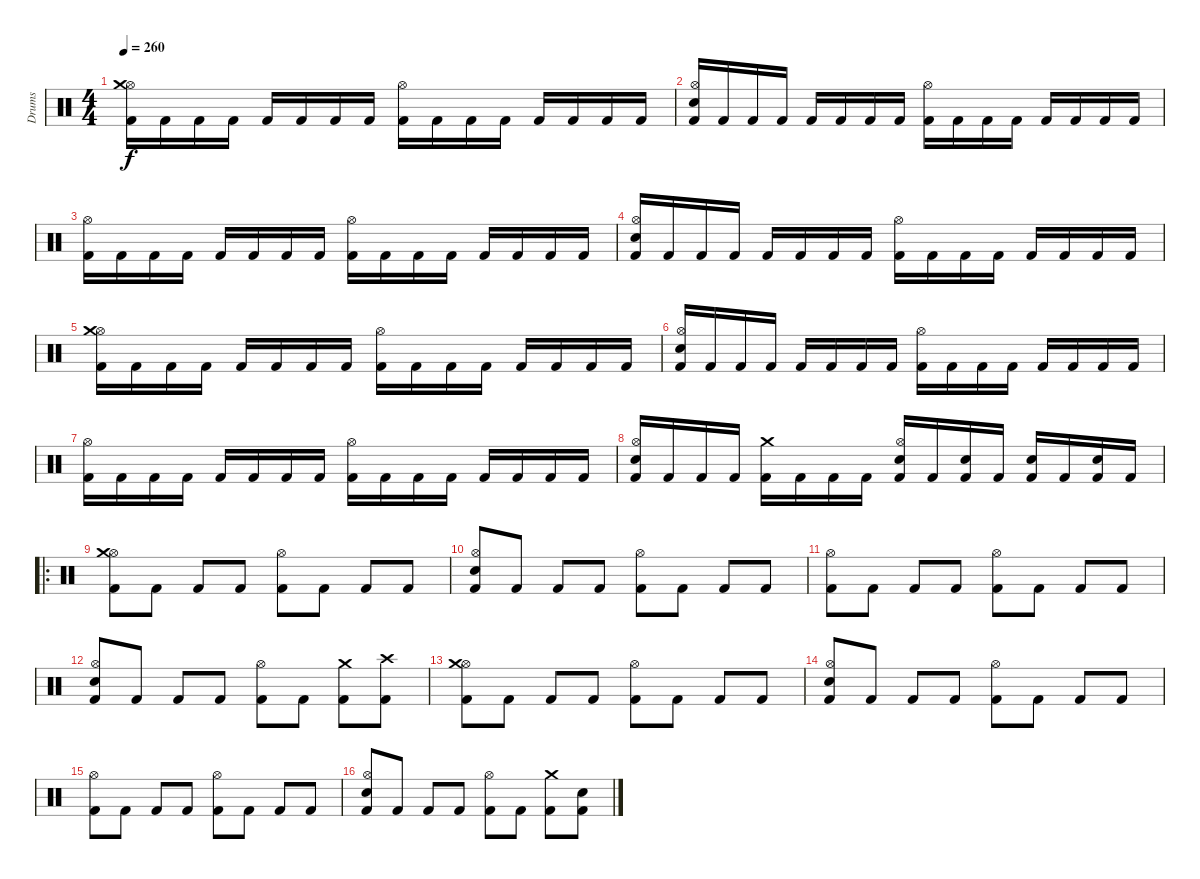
\track ("Drums" "Drums") {instrument percussion}
\staff {score}
\articulation defaults
\ts (4 4)
\tempo 260
\clef neutral
\ks c
("Kick (hit) 2" "Hi-Hat (open)" "Crash medium (hit)").16{dy f} "Kick (hit) 2".16 "Kick (hit) 2".16 "Kick (hit) 2".16 "Kick (hit) 2".16 "Kick (hit) 2".16 "Kick (hit) 2".16 "Kick (hit) 2".16 ("Kick (hit) 2" "Hi-Hat (open)").16 "Kick (hit) 2".16 "Kick (hit) 2".16 "Kick (hit) 2".16 "Kick (hit) 2".16 "Kick (hit) 2".16 "Kick (hit) 2".16 "Kick (hit) 2".16 |
("Kick (hit) 2" "Electric Snare (hit)" "Hi-Hat (open)").16 "Kick (hit) 2".16 "Kick (hit) 2".16 "Kick (hit) 2".16 "Kick (hit) 2".16 "Kick (hit) 2".16 "Kick (hit) 2".16 "Kick (hit) 2".16 ("Kick (hit) 2" "Hi-Hat (open)").16 "Kick (hit) 2".16 "Kick (hit) 2".16 "Kick (hit) 2".16 "Kick (hit) 2".16 "Kick (hit) 2".16 "Kick (hit) 2".16 "Kick (hit) 2".16 |
("Kick (hit) 2" "Hi-Hat (open)").16 "Kick (hit) 2".16 "Kick (hit) 2".16 "Kick (hit) 2".16 "Kick (hit) 2".16 "Kick (hit) 2".16 "Kick (hit) 2".16 "Kick (hit) 2".16 ("Kick (hit) 2" "Hi-Hat (open)").16 "Kick (hit) 2".16 "Kick (hit) 2".16 "Kick (hit) 2".16 "Kick (hit) 2".16 "Kick (hit) 2".16 "Kick (hit) 2".16 "Kick (hit) 2".16 |
("Kick (hit) 2" "Electric Snare (hit)" "Hi-Hat (open)").16 "Kick (hit) 2".16 "Kick (hit) 2".16 "Kick (hit) 2".16 "Kick (hit) 2".16 "Kick (hit) 2".16 "Kick (hit) 2".16 "Kick (hit) 2".16 ("Kick (hit) 2" "Hi-Hat (open)").16 "Kick (hit) 2".16 "Kick (hit) 2".16 "Kick (hit) 2".16 "Kick (hit) 2".16 "Kick (hit) 2".16 "Kick (hit) 2".16 "Kick (hit) 2".16 |
("Kick (hit) 2" "Hi-Hat (open)" "Crash medium (hit)").16 "Kick (hit) 2".16 "Kick (hit) 2".16 "Kick (hit) 2".16 "Kick (hit) 2".16 "Kick (hit) 2".16 "Kick (hit) 2".16 "Kick (hit) 2".16 ("Kick (hit) 2" "Hi-Hat (open)").16 "Kick (hit) 2".16 "Kick (hit) 2".16 "Kick (hit) 2".16 "Kick (hit) 2".16 "Kick (hit) 2".16 "Kick (hit) 2".16 "Kick (hit) 2".16 |
("Kick (hit) 2" "Electric Snare (hit)" "Hi-Hat (open)").16 "Kick (hit) 2".16 "Kick (hit) 2".16 "Kick (hit) 2".16 "Kick (hit) 2".16 "Kick (hit) 2".16 "Kick (hit) 2".16 "Kick (hit) 2".16 ("Kick (hit) 2" "Hi-Hat (open)").16 "Kick (hit) 2".16 "Kick (hit) 2".16 "Kick (hit) 2".16 "Kick (hit) 2".16 "Kick (hit) 2".16 "Kick (hit) 2".16 "Kick (hit) 2".16 |
("Kick (hit) 2" "Hi-Hat (open)").16 "Kick (hit) 2".16 "Kick (hit) 2".16 "Kick (hit) 2".16 "Kick (hit) 2".16 "Kick (hit) 2".16 "Kick (hit) 2".16 "Kick (hit) 2".16 ("Kick (hit) 2" "Hi-Hat (open)").16 "Kick (hit) 2".16 "Kick (hit) 2".16 "Kick (hit) 2".16 "Kick (hit) 2".16 "Kick (hit) 2".16 "Kick (hit) 2".16 "Kick (hit) 2".16 |
("Kick (hit) 2" "Electric Snare (hit)" "Hi-Hat (open)").16 "Kick (hit) 2".16 "Kick (hit) 2".16 "Kick (hit) 2".16 ("Kick (hit) 2" "Crash medium (hit)").16 "Kick (hit) 2".16 "Kick (hit) 2".16 "Kick (hit) 2".16 ("Kick (hit) 2" "Electric Snare (hit)" "Hi-Hat (open)").16 "Kick (hit) 2".16 ("Kick (hit) 2" "Electric Snare (hit)").16 "Kick (hit) 2".16 ("Kick (hit) 2" "Electric Snare (hit)").16 "Kick (hit) 2".16 ("Kick (hit) 2" "Electric Snare (hit)").16 "Kick (hit) 2".16 |
\ro
("Kick (hit) 2" "Hi-Hat (open)" "Crash medium (hit)").8 "Kick (hit) 2".8 "Kick (hit) 2".8 "Kick (hit) 2".8 ("Kick (hit) 2" "Hi-Hat (open)").8 "Kick (hit) 2".8 "Kick (hit) 2".8 "Kick (hit) 2".8 |
("Kick (hit) 2" "Electric Snare (hit)" "Hi-Hat (open)").8 "Kick (hit) 2".8 "Kick (hit) 2".8 "Kick (hit) 2".8 ("Kick (hit) 2" "Hi-Hat (open)").8 "Kick (hit) 2".8 "Kick (hit) 2".8 "Kick (hit) 2".8 |
("Kick (hit) 2" "Hi-Hat (open)").8 "Kick (hit) 2".8 "Kick (hit) 2".8 "Kick (hit) 2".8 ("Kick (hit) 2" "Hi-Hat (open)").8 "Kick (hit) 2".8 "Kick (hit) 2".8 "Kick (hit) 2".8 |
("Kick (hit) 2" "Electric Snare (hit)" "Hi-Hat (open)").8 "Kick (hit) 2".8 "Kick (hit) 2".8 "Kick (hit) 2".8 ("Kick (hit) 2" "Hi-Hat (open)").8 "Kick (hit) 2".8 ("Kick (hit) 2" "Crash medium (hit)").8 ("Kick (hit) 2" "Crash high (hit)").8 |
("Kick (hit) 2" "Hi-Hat (open)" "Crash medium (hit)").8 "Kick (hit) 2".8 "Kick (hit) 2".8 "Kick (hit) 2".8 ("Kick (hit) 2" "Hi-Hat (open)").8 "Kick (hit) 2".8 "Kick (hit) 2".8 "Kick (hit) 2".8 |
("Kick (hit) 2" "Electric Snare (hit)" "Hi-Hat (open)").8 "Kick (hit) 2".8 "Kick (hit) 2".8 "Kick (hit) 2".8 ("Kick (hit) 2" "Hi-Hat (open)").8 "Kick (hit) 2".8 "Kick (hit) 2".8 "Kick (hit) 2".8 |
("Kick (hit) 2" "Hi-Hat (open)").8 "Kick (hit) 2".8 "Kick (hit) 2".8 "Kick (hit) 2".8 ("Kick (hit) 2" "Hi-Hat (open)").8 "Kick (hit) 2".8 "Kick (hit) 2".8 "Kick (hit) 2".8 |
("Kick (hit) 2" "Electric Snare (hit)" "Hi-Hat (open)").8 "Kick (hit) 2".8 "Kick (hit) 2".8 "Kick (hit) 2".8 ("Kick (hit) 2" "Hi-Hat (open)").8 "Kick (hit) 2".8 ("Kick (hit) 2" "Crash medium (hit)").8 ("Kick (hit) 2" "Electric Snare (hit)").8
